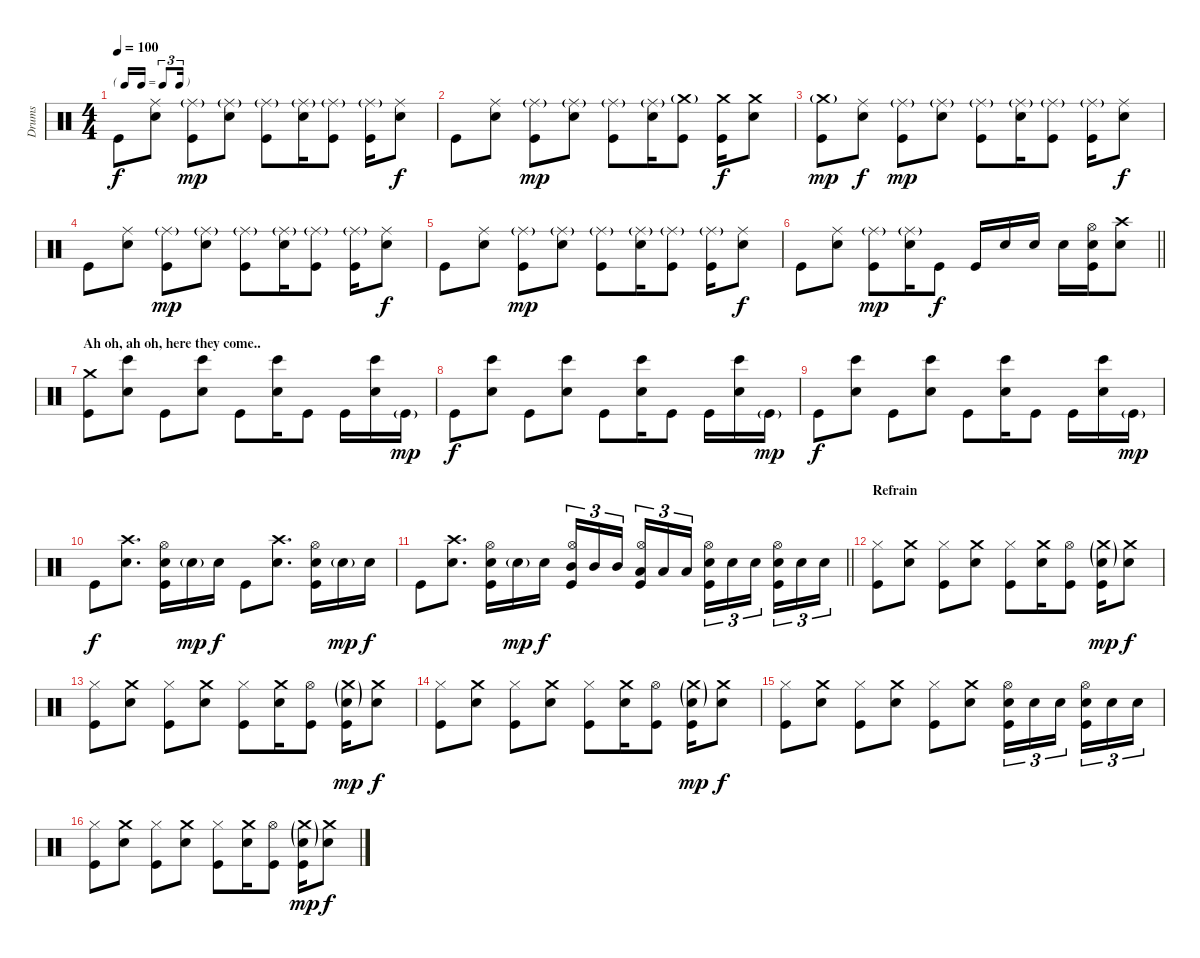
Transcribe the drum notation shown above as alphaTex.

\track ("Drums" "Drums") {instrument percussion}
\staff {score}
\articulation defaults
\ts (4 4)
\tf triplet16th
\tempo 100
\clef neutral
\ks c "Kick (hit)".8{dy f}
("Ride (middle)" "Electric Snare (hit)").8 ("Ride (middle)"{g} "Kick (hit)").8{dy mp} ("Ride (middle)"{g} "Electric Snare (hit)").8 ("Ride (middle)"{g} "Kick (hit)").8 ("Ride (middle)"{g} "Electric Snare (hit)").16 ("Ride (middle)"{g} "Kick (hit)").8 ("Ride (middle)"{g} "Kick (hit)").16 ("Ride (middle)" "Electric Snare (hit)").8{dy f} |
"Kick (hit)".8 ("Ride (middle)" "Electric Snare (hit)").8 ("Ride (middle)"{g} "Kick (hit)").8{dy mp} ("Ride (middle)"{g} "Electric Snare (hit)").8 ("Ride (middle)"{g} "Kick (hit)").8 ("Ride (middle)"{g} "Electric Snare (hit)").16 ("Crash medium (hit)"{g} "Kick (hit)").8 ("Crash medium (hit)" "Kick (hit)").16{dy f} ("Crash medium (hit)" "Electric Snare (hit)").8 |
("Crash medium (hit)"{g} "Kick (hit)").8{dy mp} ("Ride (middle)" "Electric Snare (hit)").8{dy f} ("Ride (middle)"{g} "Kick (hit)").8{dy mp} ("Ride (middle)"{g} "Electric Snare (hit)").8 ("Ride (middle)"{g} "Kick (hit)").8 ("Ride (middle)"{g} "Electric Snare (hit)").16 ("Ride (middle)"{g} "Kick (hit)").8 ("Ride (middle)"{g} "Kick (hit)").16 ("Ride (middle)" "Electric Snare (hit)").8{dy f} |
"Kick (hit)".8 ("Ride (middle)" "Electric Snare (hit)").8 ("Ride (middle)"{g} "Kick (hit)").8{dy mp} ("Ride (middle)"{g} "Electric Snare (hit)").8 ("Ride (middle)"{g} "Kick (hit)").8 ("Ride (middle)"{g} "Electric Snare (hit)").16 ("Ride (middle)"{g} "Kick (hit)").8 ("Ride (middle)"{g} "Kick (hit)").16 ("Ride (middle)" "Electric Snare (hit)").8{dy f} |
"Kick (hit)".8 ("Ride (middle)" "Electric Snare (hit)").8 ("Ride (middle)"{g} "Kick (hit)").8{dy mp} ("Ride (middle)"{g} "Electric Snare (hit)").8 ("Ride (middle)"{g} "Kick (hit)").8 ("Ride (middle)"{g} "Electric Snare (hit)").16 ("Ride (middle)"{g} "Kick (hit)").8 ("Ride (middle)"{g} "Kick (hit)").16 ("Ride (middle)" "Electric Snare (hit)").8{dy f} |
\barLineRight lightlight "Kick (hit)".8
("Ride (middle)" "Electric Snare (hit)").8 ("Ride (middle)"{g} "Kick (hit)").8{dy mp} ("Ride (middle)"{g} "Electric Snare (hit)").16 "Kick (hit)".8{dy f} "Kick (hit)".16 "Electric Snare (hit)".16 "Electric Snare (hit)".16 "Electric Snare (hit)".16 ("Hi-Hat (open)" "Electric Snare (hit)" "Kick (hit)").16 ("Crash high (hit)" "Electric Snare (hit)").8 |
\section ("" "Ah oh, ah oh, here they come..")
("Crash medium (hit)" "Kick (hit)").8 ("Bongo High (hit)" "Hand Clap (hit)").8 "Kick (hit)".8 ("Bongo High (hit)" "Hand Clap (hit)").8 "Kick (hit)".8 ("Bongo High (hit)" "Hand Clap (hit)").16 "Kick (hit)".8 "Kick (hit)".16 ("Bongo High (hit)" "Hand Clap (hit)").16 "Kick (hit)"{g}.16{dy mp} |
"Kick (hit)".8{dy f} ("Bongo High (hit)" "Hand Clap (hit)").8 "Kick (hit)".8 ("Bongo High (hit)" "Hand Clap (hit)").8 "Kick (hit)".8 ("Bongo High (hit)" "Hand Clap (hit)").16 "Kick (hit)".8 "Kick (hit)".16 ("Bongo High (hit)" "Hand Clap (hit)").16 "Kick (hit)"{g}.16{dy mp} |
"Kick (hit)".8{dy f} ("Bongo High (hit)" "Hand Clap (hit)").8 "Kick (hit)".8 ("Bongo High (hit)" "Hand Clap (hit)").8 "Kick (hit)".8 ("Bongo High (hit)" "Hand Clap (hit)").16 "Kick (hit)".8 "Kick (hit)".16 ("Bongo High (hit)" "Hand Clap (hit)").16 "Kick (hit)"{g}.16{dy mp} |
"Kick (hit)".8{dy f} ("Crash high (hit)" "Electric Snare (hit)").8{d} ("Hi-Hat (open)" "Electric Snare (hit)" "Kick (hit)").16 "Electric Snare (hit)"{g}.16{dy mp} "Electric Snare (hit)".16{dy f} "Kick (hit)".8 ("Crash high (hit)" "Electric Snare (hit)").8{d} ("Hi-Hat (open)" "Electric Snare (hit)" "Kick (hit)").16 "Electric Snare (hit)"{g}.16{dy mp} "Electric Snare (hit)".16{dy f} |
\barLineRight lightlight "Kick (hit)".8
("Crash high (hit)" "Electric Snare (hit)").8{d} ("Hi-Hat (open)" "Electric Snare (hit)" "Kick (hit)").16 "Electric Snare (hit)"{g}.16{dy mp} "Electric Snare (hit)".16{dy f} ("Hi-Hat (open)" "Mid Tom (hit)" "Kick (hit)").16{tu (3 2)} "Mid Tom (hit)".16{tu (3 2)} "Mid Tom (hit)".16{tu (3 2) beam splitsecondary} ("Hi-Hat (open)" "Low Tom (hit)" "Kick (hit)").16{tu (3 2)} "Low Tom (hit)".16{tu (3 2)} "Low Tom (hit)".16{tu (3 2)} ("Hi-Hat (open)" "Electric Snare (hit)" "Kick (hit)").16{tu (3 2)} "Electric Snare (hit)".16{tu (3 2)} "Electric Snare (hit)".16{tu (3 2) beam splitsecondary} ("Hi-Hat (open)" "Electric Snare (hit)" "Kick (hit)").16{tu (3 2)} "Electric Snare (hit)".16{tu (3 2)} "Electric Snare (hit)".16{tu (3 2)} |
\section ("" "Refrain")
("Hi-Hat (closed)" "Kick (hit)").8 ("Crash medium (hit)" "Electric Snare (hit)").8 ("Hi-Hat (closed)" "Kick (hit)").8 ("Crash medium (hit)" "Electric Snare (hit)").8 ("Hi-Hat (closed)" "Kick (hit)").8 ("Crash medium (hit)" "Electric Snare (hit)").16 ("Hi-Hat (open)" "Kick (hit)").8 ("Crash medium (hit)"{g} "Electric Snare (hit)"{g} "Kick (hit)").16{dy mp} ("Crash medium (hit)" "Electric Snare (hit)").8{dy f} |
("Hi-Hat (closed)" "Kick (hit)").8 ("Crash medium (hit)" "Electric Snare (hit)").8 ("Hi-Hat (closed)" "Kick (hit)").8 ("Crash medium (hit)" "Electric Snare (hit)").8 ("Hi-Hat (closed)" "Kick (hit)").8 ("Crash medium (hit)" "Electric Snare (hit)").16 ("Hi-Hat (open)" "Kick (hit)").8 ("Crash medium (hit)"{g} "Electric Snare (hit)"{g} "Kick (hit)").16{dy mp} ("Crash medium (hit)" "Electric Snare (hit)").8{dy f} |
("Hi-Hat (closed)" "Kick (hit)").8 ("Crash medium (hit)" "Electric Snare (hit)").8 ("Hi-Hat (closed)" "Kick (hit)").8 ("Crash medium (hit)" "Electric Snare (hit)").8 ("Hi-Hat (closed)" "Kick (hit)").8 ("Crash medium (hit)" "Electric Snare (hit)").16 ("Hi-Hat (open)" "Kick (hit)").8 ("Crash medium (hit)"{g} "Electric Snare (hit)"{g} "Kick (hit)").16{dy mp} ("Crash medium (hit)" "Electric Snare (hit)").8{dy f} |
("Hi-Hat (closed)" "Kick (hit)").8 ("Crash medium (hit)" "Electric Snare (hit)").8 ("Hi-Hat (closed)" "Kick (hit)").8 ("Crash medium (hit)" "Electric Snare (hit)").8 ("Hi-Hat (closed)" "Kick (hit)").8 ("Crash medium (hit)" "Electric Snare (hit)").8 ("Hi-Hat (open)" "Electric Snare (hit)" "Kick (hit)").16{tu (3 2)} "Electric Snare (hit)".16{tu (3 2)} "Electric Snare (hit)".16{tu (3 2) beam splitsecondary} ("Hi-Hat (open)" "Electric Snare (hit)" "Kick (hit)").16{tu (3 2)} "Electric Snare (hit)".16{tu (3 2)} "Electric Snare (hit)".16{tu (3 2)} |
("Hi-Hat (closed)" "Kick (hit)").8 ("Crash medium (hit)" "Electric Snare (hit)").8 ("Hi-Hat (closed)" "Kick (hit)").8 ("Crash medium (hit)" "Electric Snare (hit)").8 ("Hi-Hat (closed)" "Kick (hit)").8 ("Crash medium (hit)" "Electric Snare (hit)").16 ("Hi-Hat (open)" "Kick (hit)").8 ("Crash medium (hit)"{g} "Electric Snare (hit)"{g} "Kick (hit)").16{dy mp} ("Crash medium (hit)" "Electric Snare (hit)").8{dy f}
